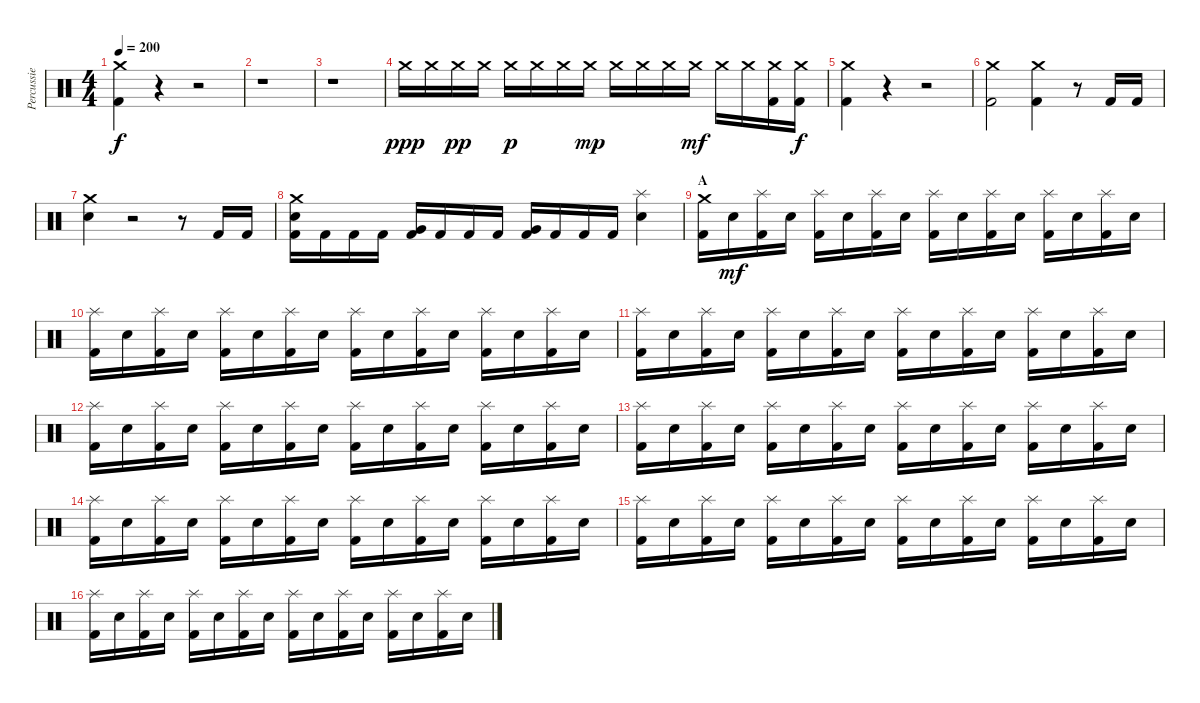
\track ("Percussie" "Percussie") {instrument percussion}
\staff {score}
\articulation defaults
\ts (4 4)
\tempo 200
\clef neutral
\ks c
("Crash medium (hit)" "Kick (hit) 2").4{dy f} r.4 r.2 |
r.1 |
r.1 |
"Crash medium (hit)".16{dy ppp} "Crash medium (hit)".16 "Crash medium (hit)".16{dy pp} "Crash medium (hit)".16 "Crash medium (hit)".16{dy p} "Crash medium (hit)".16 "Crash medium (hit)".16 "Crash medium (hit)".16{dy mp} "Crash medium (hit)".16 "Crash medium (hit)".16 "Crash medium (hit)".16 "Crash medium (hit)".16{dy mf} "Crash medium (hit)".16 "Crash medium (hit)".16 ("Crash medium (hit)" "Kick (hit) 2").16 ("Crash medium (hit)" "Kick (hit) 2").16{dy f} |
("Crash medium (hit)" "Kick (hit) 2").4 r.4 r.2 |
("Crash medium (hit)" "Kick (hit) 2").2 ("Crash medium (hit)" "Kick (hit) 2").4 r.8 "Kick (hit) 2".16 "Kick (hit) 2".16 |
("Crash medium (hit)" "Electric Snare (hit)").4 r.2 r.8 "Kick (hit) 2".16 "Kick (hit) 2".16 |
("Crash medium (hit)" "Electric Snare (hit)" "Kick (hit) 2").16 "Kick (hit) 2".16 "Kick (hit) 2".16 "Kick (hit) 2".16 ("Very Low Tom (hit)" "Kick (hit) 2").16 "Kick (hit) 2".16 "Kick (hit) 2".16 "Kick (hit) 2".16 ("Very Low Tom (hit)" "Kick (hit) 2").16 "Kick (hit) 2".16 "Kick (hit) 2".16 "Kick (hit) 2".16 ("Splash (hit)" "Electric Snare (hit)").4 |
\section ("" "A")
("Crash medium (hit)" "Kick (hit) 2").16 "Electric Snare (hit)".16{dy mf} ("Splash (hit)" "Kick (hit) 2").16 "Electric Snare (hit)".16 ("Splash (hit)" "Kick (hit) 2").16 "Electric Snare (hit)".16 ("Splash (hit)" "Kick (hit) 2").16 "Electric Snare (hit)".16 ("Splash (hit)" "Kick (hit) 2").16 "Electric Snare (hit)".16 ("Splash (hit)" "Kick (hit) 2").16 "Electric Snare (hit)".16 ("Splash (hit)" "Kick (hit) 2").16 "Electric Snare (hit)".16 ("Splash (hit)" "Kick (hit) 2").16 "Electric Snare (hit)".16 |
("Splash (hit)" "Kick (hit) 2").16 "Electric Snare (hit)".16 ("Splash (hit)" "Kick (hit) 2").16 "Electric Snare (hit)".16 ("Splash (hit)" "Kick (hit) 2").16 "Electric Snare (hit)".16 ("Splash (hit)" "Kick (hit) 2").16 "Electric Snare (hit)".16 ("Splash (hit)" "Kick (hit) 2").16 "Electric Snare (hit)".16 ("Splash (hit)" "Kick (hit) 2").16 "Electric Snare (hit)".16 ("Splash (hit)" "Kick (hit) 2").16 "Electric Snare (hit)".16 ("Splash (hit)" "Kick (hit) 2").16 "Electric Snare (hit)".16 |
("Splash (hit)" "Kick (hit) 2").16 "Electric Snare (hit)".16 ("Splash (hit)" "Kick (hit) 2").16 "Electric Snare (hit)".16 ("Splash (hit)" "Kick (hit) 2").16 "Electric Snare (hit)".16 ("Splash (hit)" "Kick (hit) 2").16 "Electric Snare (hit)".16 ("Splash (hit)" "Kick (hit) 2").16 "Electric Snare (hit)".16 ("Splash (hit)" "Kick (hit) 2").16 "Electric Snare (hit)".16 ("Splash (hit)" "Kick (hit) 2").16 "Electric Snare (hit)".16 ("Splash (hit)" "Kick (hit) 2").16 "Electric Snare (hit)".16 |
("Splash (hit)" "Kick (hit) 2").16 "Electric Snare (hit)".16 ("Splash (hit)" "Kick (hit) 2").16 "Electric Snare (hit)".16 ("Splash (hit)" "Kick (hit) 2").16 "Electric Snare (hit)".16 ("Splash (hit)" "Kick (hit) 2").16 "Electric Snare (hit)".16 ("Splash (hit)" "Kick (hit) 2").16 "Electric Snare (hit)".16 ("Splash (hit)" "Kick (hit) 2").16 "Electric Snare (hit)".16 ("Splash (hit)" "Kick (hit) 2").16 "Electric Snare (hit)".16 ("Splash (hit)" "Kick (hit) 2").16 "Electric Snare (hit)".16 |
("Splash (hit)" "Kick (hit) 2").16 "Electric Snare (hit)".16 ("Splash (hit)" "Kick (hit) 2").16 "Electric Snare (hit)".16 ("Splash (hit)" "Kick (hit) 2").16 "Electric Snare (hit)".16 ("Splash (hit)" "Kick (hit) 2").16 "Electric Snare (hit)".16 ("Splash (hit)" "Kick (hit) 2").16 "Electric Snare (hit)".16 ("Splash (hit)" "Kick (hit) 2").16 "Electric Snare (hit)".16 ("Splash (hit)" "Kick (hit) 2").16 "Electric Snare (hit)".16 ("Splash (hit)" "Kick (hit) 2").16 "Electric Snare (hit)".16 |
("Splash (hit)" "Kick (hit) 2").16 "Electric Snare (hit)".16 ("Splash (hit)" "Kick (hit) 2").16 "Electric Snare (hit)".16 ("Splash (hit)" "Kick (hit) 2").16 "Electric Snare (hit)".16 ("Splash (hit)" "Kick (hit) 2").16 "Electric Snare (hit)".16 ("Splash (hit)" "Kick (hit) 2").16 "Electric Snare (hit)".16 ("Splash (hit)" "Kick (hit) 2").16 "Electric Snare (hit)".16 ("Splash (hit)" "Kick (hit) 2").16 "Electric Snare (hit)".16 ("Splash (hit)" "Kick (hit) 2").16 "Electric Snare (hit)".16 |
("Splash (hit)" "Kick (hit) 2").16 "Electric Snare (hit)".16 ("Splash (hit)" "Kick (hit) 2").16 "Electric Snare (hit)".16 ("Splash (hit)" "Kick (hit) 2").16 "Electric Snare (hit)".16 ("Splash (hit)" "Kick (hit) 2").16 "Electric Snare (hit)".16 ("Splash (hit)" "Kick (hit) 2").16 "Electric Snare (hit)".16 ("Splash (hit)" "Kick (hit) 2").16 "Electric Snare (hit)".16 ("Splash (hit)" "Kick (hit) 2").16 "Electric Snare (hit)".16 ("Splash (hit)" "Kick (hit) 2").16 "Electric Snare (hit)".16 |
("Splash (hit)" "Kick (hit) 2").16 "Electric Snare (hit)".16 ("Splash (hit)" "Kick (hit) 2").16 "Electric Snare (hit)".16 ("Splash (hit)" "Kick (hit) 2").16 "Electric Snare (hit)".16 ("Splash (hit)" "Kick (hit) 2").16 "Electric Snare (hit)".16 ("Splash (hit)" "Kick (hit) 2").16 "Electric Snare (hit)".16 ("Splash (hit)" "Kick (hit) 2").16 "Electric Snare (hit)".16 ("Splash (hit)" "Kick (hit) 2").16 "Electric Snare (hit)".16 ("Splash (hit)" "Kick (hit) 2").16 "Electric Snare (hit)".16
